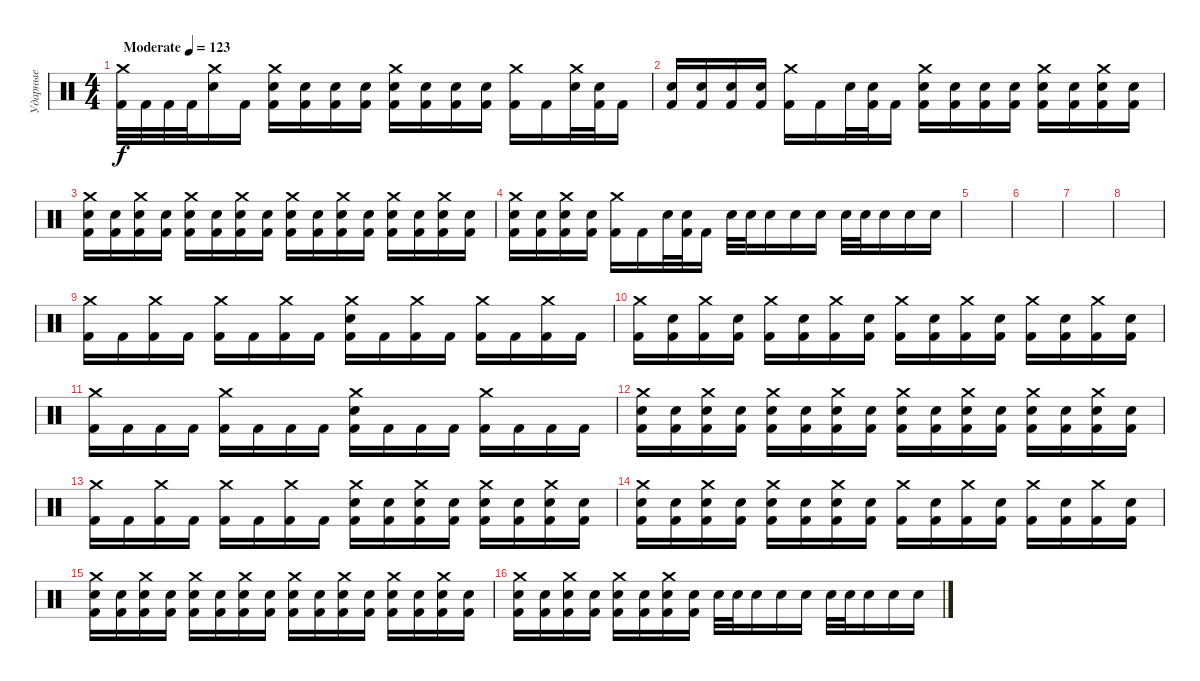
\track ("Ударные" "Ударные") {instrument percussion}
\staff {score}
\articulation defaults
\ts (4 4)
\tempo (123 "Moderate")
\clef neutral
\ks c
("Crash medium (hit)" "Kick (hit) 2").32{dy f} "Kick (hit) 2".32 "Kick (hit) 2".32 "Kick (hit) 2".32 ("Crash medium (hit)" "Electric Snare (hit)").16 "Kick (hit) 2".16 ("Crash medium (hit)" "Electric Snare (hit)" "Kick (hit) 2").16 ("Electric Snare (hit)" "Kick (hit) 2").16 ("Electric Snare (hit)" "Kick (hit) 2").16 ("Electric Snare (hit)" "Kick (hit) 2").16 ("Crash medium (hit)" "Electric Snare (hit)" "Kick (hit) 2").16 ("Electric Snare (hit)" "Kick (hit) 2").16 ("Electric Snare (hit)" "Kick (hit) 2").16 ("Electric Snare (hit)" "Kick (hit) 2").16 ("Crash medium (hit)" "Kick (hit) 2").16 "Kick (hit) 2".16 ("Crash medium (hit)" "Electric Snare (hit)").32 ("Electric Snare (hit)" "Kick (hit) 2").32 "Kick (hit) 2".16 |
("Electric Snare (hit)" "Kick (hit) 2").16 ("Electric Snare (hit)" "Kick (hit) 2").16 ("Electric Snare (hit)" "Kick (hit) 2").16 ("Electric Snare (hit)" "Kick (hit) 2").16 ("Crash medium (hit)" "Kick (hit) 2").16 "Kick (hit) 2".16 "Electric Snare (hit)".32 ("Electric Snare (hit)" "Kick (hit) 2").32 "Kick (hit) 2".16 ("Crash medium (hit)" "Electric Snare (hit)" "Kick (hit) 2").16 ("Electric Snare (hit)" "Kick (hit) 2").16 ("Electric Snare (hit)" "Kick (hit) 2").16 ("Electric Snare (hit)" "Kick (hit) 2").16 ("Crash medium (hit)" "Electric Snare (hit)" "Kick (hit) 2").16 ("Electric Snare (hit)" "Kick (hit) 2").16 ("Crash medium (hit)" "Electric Snare (hit)" "Kick (hit) 2").16 ("Electric Snare (hit)" "Kick (hit) 2").16 |
("Crash medium (hit)" "Electric Snare (hit)" "Kick (hit) 2").16 ("Electric Snare (hit)" "Kick (hit) 2").16 ("Crash medium (hit)" "Electric Snare (hit)" "Kick (hit) 2").16 ("Electric Snare (hit)" "Kick (hit) 2").16 ("Crash medium (hit)" "Electric Snare (hit)" "Kick (hit) 2").16 ("Electric Snare (hit)" "Kick (hit) 2").16 ("Crash medium (hit)" "Electric Snare (hit)" "Kick (hit) 2").16 ("Electric Snare (hit)" "Kick (hit) 2").16 ("Crash medium (hit)" "Electric Snare (hit)" "Kick (hit) 2").16 ("Electric Snare (hit)" "Kick (hit) 2").16 ("Crash medium (hit)" "Electric Snare (hit)" "Kick (hit) 2").16 ("Electric Snare (hit)" "Kick (hit) 2").16 ("Crash medium (hit)" "Electric Snare (hit)" "Kick (hit) 2").16 ("Electric Snare (hit)" "Kick (hit) 2").16 ("Crash medium (hit)" "Electric Snare (hit)" "Kick (hit) 2").16 ("Electric Snare (hit)" "Kick (hit) 2").16 |
("Crash medium (hit)" "Electric Snare (hit)" "Kick (hit) 2").16 ("Electric Snare (hit)" "Kick (hit) 2").16 ("Crash medium (hit)" "Electric Snare (hit)" "Kick (hit) 2").16 ("Electric Snare (hit)" "Kick (hit) 2").16 ("Crash medium (hit)" "Kick (hit) 2").16 "Kick (hit) 2".16 "Electric Snare (hit)".32 ("Electric Snare (hit)" "Kick (hit) 2").32 "Kick (hit) 2".16 "Electric Snare (hit)".32 "Electric Snare (hit)".32 "Electric Snare (hit)".16 "Electric Snare (hit)".16 "Electric Snare (hit)".16 "Electric Snare (hit)".32 "Electric Snare (hit)".32 "Electric Snare (hit)".16 "Electric Snare (hit)".16 "Electric Snare (hit)".16 |
|
|
|
|
("Crash medium (hit)" "Kick (hit) 2").16 "Kick (hit) 2".16 ("Crash medium (hit)" "Kick (hit) 2").16 "Kick (hit) 2".16 ("Crash medium (hit)" "Kick (hit) 2").16 "Kick (hit) 2".16 ("Crash medium (hit)" "Kick (hit) 2").16 "Kick (hit) 2".16 ("Crash medium (hit)" "Electric Snare (hit)" "Kick (hit) 2").16 "Kick (hit) 2".16 ("Crash medium (hit)" "Kick (hit) 2").16 "Kick (hit) 2".16 ("Crash medium (hit)" "Kick (hit) 2").16 "Kick (hit) 2".16 ("Crash medium (hit)" "Kick (hit) 2").16 "Kick (hit) 2".16 |
("Crash medium (hit)" "Kick (hit) 2").16 ("Electric Snare (hit)" "Kick (hit) 2").16 ("Crash medium (hit)" "Kick (hit) 2").16 ("Electric Snare (hit)" "Kick (hit) 2").16 ("Crash medium (hit)" "Kick (hit) 2").16 ("Electric Snare (hit)" "Kick (hit) 2").16 ("Crash medium (hit)" "Kick (hit) 2").16 ("Electric Snare (hit)" "Kick (hit) 2").16 ("Crash medium (hit)" "Kick (hit) 2").16 ("Electric Snare (hit)" "Kick (hit) 2").16 ("Crash medium (hit)" "Kick (hit) 2").16 ("Electric Snare (hit)" "Kick (hit) 2").16 ("Crash medium (hit)" "Kick (hit) 2").16 ("Electric Snare (hit)" "Kick (hit) 2").16 ("Crash medium (hit)" "Kick (hit) 2").16 ("Electric Snare (hit)" "Kick (hit) 2").16 |
("Crash medium (hit)" "Kick (hit) 2").16 "Kick (hit) 2".16 "Kick (hit) 2".16 "Kick (hit) 2".16 ("Crash medium (hit)" "Kick (hit) 2").16 "Kick (hit) 2".16 "Kick (hit) 2".16 "Kick (hit) 2".16 ("Crash medium (hit)" "Electric Snare (hit)" "Kick (hit) 2").16 "Kick (hit) 2".16 "Kick (hit) 2".16 "Kick (hit) 2".16 ("Crash medium (hit)" "Kick (hit) 2").16 "Kick (hit) 2".16 "Kick (hit) 2".16 "Kick (hit) 2".16 |
("Crash medium (hit)" "Electric Snare (hit)" "Kick (hit) 2").16 ("Electric Snare (hit)" "Kick (hit) 2").16 ("Crash medium (hit)" "Electric Snare (hit)" "Kick (hit) 2").16 ("Electric Snare (hit)" "Kick (hit) 2").16 ("Crash medium (hit)" "Electric Snare (hit)" "Kick (hit) 2").16 ("Electric Snare (hit)" "Kick (hit) 2").16 ("Crash medium (hit)" "Electric Snare (hit)" "Kick (hit) 2").16 ("Electric Snare (hit)" "Kick (hit) 2").16 ("Crash medium (hit)" "Electric Snare (hit)" "Kick (hit) 2").16 ("Electric Snare (hit)" "Kick (hit) 2").16 ("Crash medium (hit)" "Electric Snare (hit)" "Kick (hit) 2").16 ("Electric Snare (hit)" "Kick (hit) 2").16 ("Crash medium (hit)" "Electric Snare (hit)" "Kick (hit) 2").16 ("Electric Snare (hit)" "Kick (hit) 2").16 ("Crash medium (hit)" "Electric Snare (hit)" "Kick (hit) 2").16 ("Electric Snare (hit)" "Kick (hit) 2").16 |
("Crash medium (hit)" "Kick (hit) 2").16 "Kick (hit) 2".16 ("Crash medium (hit)" "Kick (hit) 2").16 "Kick (hit) 2".16 ("Crash medium (hit)" "Kick (hit) 2").16 "Kick (hit) 2".16 ("Crash medium (hit)" "Kick (hit) 2").16 "Kick (hit) 2".16 ("Crash medium (hit)" "Electric Snare (hit)" "Kick (hit) 2").16 ("Electric Snare (hit)" "Kick (hit) 2").16 ("Crash medium (hit)" "Electric Snare (hit)" "Kick (hit) 2").16 ("Electric Snare (hit)" "Kick (hit) 2").16 ("Crash medium (hit)" "Electric Snare (hit)" "Kick (hit) 2").16 ("Electric Snare (hit)" "Kick (hit) 2").16 ("Crash medium (hit)" "Electric Snare (hit)" "Kick (hit) 2").16 ("Electric Snare (hit)" "Kick (hit) 2").16 |
("Crash medium (hit)" "Electric Snare (hit)" "Kick (hit) 2").16 ("Electric Snare (hit)" "Kick (hit) 2").16 ("Crash medium (hit)" "Electric Snare (hit)" "Kick (hit) 2").16 ("Electric Snare (hit)" "Kick (hit) 2").16 ("Crash medium (hit)" "Electric Snare (hit)" "Kick (hit) 2").16 ("Electric Snare (hit)" "Kick (hit) 2").16 ("Crash medium (hit)" "Electric Snare (hit)" "Kick (hit) 2").16 ("Electric Snare (hit)" "Kick (hit) 2").16 ("Crash medium (hit)" "Kick (hit) 2").16 ("Electric Snare (hit)" "Kick (hit) 2").16 ("Crash medium (hit)" "Kick (hit) 2").16 ("Electric Snare (hit)" "Kick (hit) 2").16 ("Crash medium (hit)" "Kick (hit) 2").16 ("Electric Snare (hit)" "Kick (hit) 2").16 ("Crash medium (hit)" "Kick (hit) 2").16 ("Electric Snare (hit)" "Kick (hit) 2").16 |
("Crash medium (hit)" "Electric Snare (hit)" "Kick (hit) 2").16 ("Electric Snare (hit)" "Kick (hit) 2").16 ("Crash medium (hit)" "Electric Snare (hit)" "Kick (hit) 2").16 ("Electric Snare (hit)" "Kick (hit) 2").16 ("Crash medium (hit)" "Electric Snare (hit)" "Kick (hit) 2").16 ("Electric Snare (hit)" "Kick (hit) 2").16 ("Crash medium (hit)" "Electric Snare (hit)" "Kick (hit) 2").16 ("Electric Snare (hit)" "Kick (hit) 2").16 ("Crash medium (hit)" "Electric Snare (hit)" "Kick (hit) 2").16 ("Electric Snare (hit)" "Kick (hit) 2").16 ("Crash medium (hit)" "Electric Snare (hit)" "Kick (hit) 2").16 ("Electric Snare (hit)" "Kick (hit) 2").16 ("Crash medium (hit)" "Electric Snare (hit)" "Kick (hit) 2").16 ("Electric Snare (hit)" "Kick (hit) 2").16 ("Crash medium (hit)" "Electric Snare (hit)" "Kick (hit) 2").16 ("Electric Snare (hit)" "Kick (hit) 2").16 |
("Crash medium (hit)" "Electric Snare (hit)" "Kick (hit) 2").16 ("Electric Snare (hit)" "Kick (hit) 2").16 ("Crash medium (hit)" "Electric Snare (hit)" "Kick (hit) 2").16 ("Electric Snare (hit)" "Kick (hit) 2").16 ("Crash medium (hit)" "Electric Snare (hit)" "Kick (hit) 2").16 ("Electric Snare (hit)" "Kick (hit) 2").16 ("Crash medium (hit)" "Electric Snare (hit)" "Kick (hit) 2").16 ("Electric Snare (hit)" "Kick (hit) 2").16 "Electric Snare (hit)".32 "Electric Snare (hit)".32 "Electric Snare (hit)".16 "Electric Snare (hit)".16 "Electric Snare (hit)".16 "Electric Snare (hit)".32 "Electric Snare (hit)".32 "Electric Snare (hit)".16 "Electric Snare (hit)".16 "Electric Snare (hit)".16
